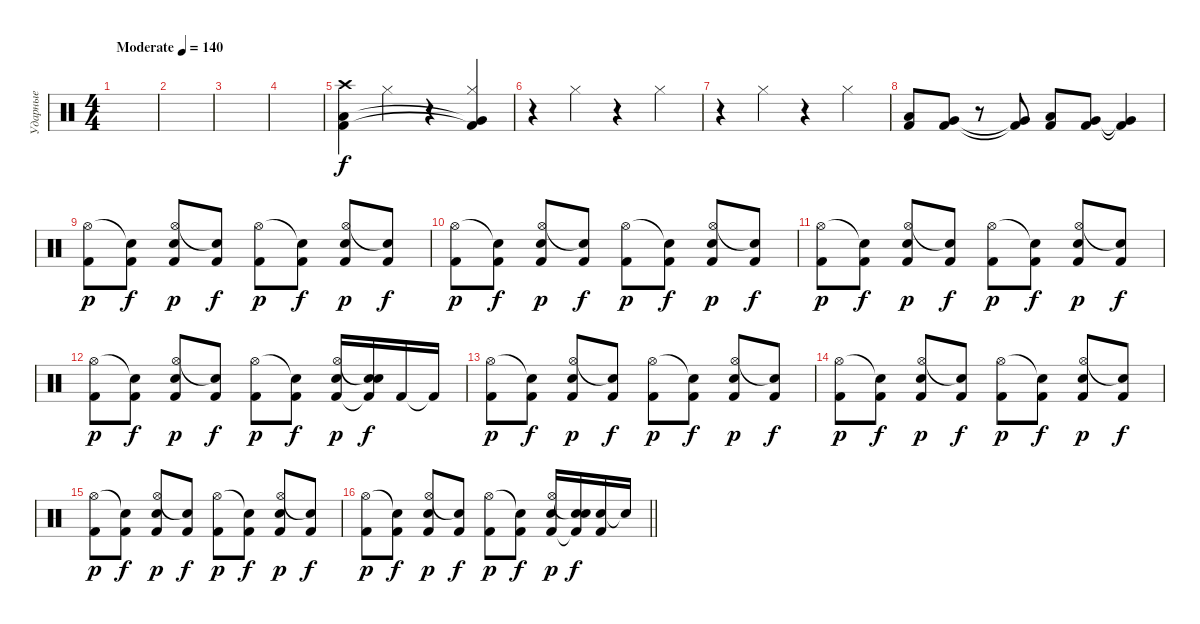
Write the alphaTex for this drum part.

\track ("Ударные" "Ударные") {instrument percussion}
\staff {score}
\articulation defaults
\ts (4 4)
\tempo (140 "Moderate")
\clef neutral
\ks c
|
|
|
|
("Crash high (hit)" "Low Floor Tom (hit)" "Kick (hit) 2").4 "Hi-Hat (closed)".4 r.4 ("Hi-Hat (closed)" "Very Low Tom (hit)"{t} "Kick (hit) 2"{t}).4 |
r.4 "Hi-Hat (closed)".4 r.4 "Hi-Hat (closed)".4 |
r.4 "Hi-Hat (closed)".4 r.4 "Hi-Hat (closed)".4 |
("Low Floor Tom (hit)" "Kick (hit) 2").8 ("Very Low Tom (hit)" "Kick (hit) 2").8 r.8 ("Very Low Tom (hit)"{t} "Kick (hit) 2"{t}).8 ("Low Floor Tom (hit)" "Kick (hit) 2").8 ("Very Low Tom (hit)" "Kick (hit) 2").8 ("Very Low Tom (hit)"{t} "Kick (hit) 2"{t}).4 |
("Hi-Hat (open)" "Kick (hit) 2").8{dy p} ("Snare (hit)"{t} "Kick (hit) 2").8{dy f} ("Hi-Hat (open)" "Electric Snare (hit)" "Kick (hit) 2").8{dy p} ("Snare (hit)"{t} "Kick (hit) 2").8{dy f} ("Hi-Hat (open)" "Kick (hit) 2").8{dy p} ("Snare (hit)"{t} "Kick (hit) 2").8{dy f} ("Hi-Hat (open)" "Electric Snare (hit)" "Kick (hit) 2").8{dy p} ("Snare (hit)"{t} "Kick (hit) 2").8{dy f} |
("Hi-Hat (open)" "Kick (hit) 2").8{dy p} ("Snare (hit)"{t} "Kick (hit) 2").8{dy f} ("Hi-Hat (open)" "Electric Snare (hit)" "Kick (hit) 2").8{dy p} ("Snare (hit)"{t} "Kick (hit) 2").8{dy f} ("Hi-Hat (open)" "Kick (hit) 2").8{dy p} ("Snare (hit)"{t} "Kick (hit) 2").8{dy f} ("Hi-Hat (open)" "Electric Snare (hit)" "Kick (hit) 2").8{dy p} ("Snare (hit)"{t} "Kick (hit) 2").8{dy f} |
("Hi-Hat (open)" "Kick (hit) 2").8{dy p} ("Snare (hit)"{t} "Kick (hit) 2").8{dy f} ("Hi-Hat (open)" "Electric Snare (hit)" "Kick (hit) 2").8{dy p} ("Snare (hit)"{t} "Kick (hit) 2").8{dy f} ("Hi-Hat (open)" "Kick (hit) 2").8{dy p} ("Snare (hit)"{t} "Kick (hit) 2").8{dy f} ("Hi-Hat (open)" "Electric Snare (hit)" "Kick (hit) 2").8{dy p} ("Snare (hit)"{t} "Kick (hit) 2").8{dy f} |
("Hi-Hat (open)" "Kick (hit) 2").8{dy p} ("Snare (hit)"{t} "Kick (hit) 2").8{dy f} ("Hi-Hat (open)" "Electric Snare (hit)" "Kick (hit) 2").8{dy p} ("Snare (hit)"{t} "Kick (hit) 2").8{dy f} ("Hi-Hat (open)" "Kick (hit) 2").8{dy p} ("Snare (hit)"{t} "Kick (hit) 2").8{dy f} ("Hi-Hat (open)" "Electric Snare (hit)" "Kick (hit) 2").16{dy p} ("Snare (hit)"{t} "Electric Snare (hit)" "Kick (hit) 2"{t}).16{dy f} "Kick (hit) 2".16 "Kick (hit) 2"{t}.16 |
("Hi-Hat (open)" "Kick (hit) 2").8{dy p} ("Snare (hit)"{t} "Kick (hit) 2").8{dy f} ("Hi-Hat (open)" "Electric Snare (hit)" "Kick (hit) 2").8{dy p} ("Snare (hit)"{t} "Kick (hit) 2").8{dy f} ("Hi-Hat (open)" "Kick (hit) 2").8{dy p} ("Snare (hit)"{t} "Kick (hit) 2").8{dy f} ("Hi-Hat (open)" "Electric Snare (hit)" "Kick (hit) 2").8{dy p} ("Snare (hit)"{t} "Kick (hit) 2").8{dy f} |
("Hi-Hat (open)" "Kick (hit) 2").8{dy p} ("Snare (hit)"{t} "Kick (hit) 2").8{dy f} ("Hi-Hat (open)" "Electric Snare (hit)" "Kick (hit) 2").8{dy p} ("Snare (hit)"{t} "Kick (hit) 2").8{dy f} ("Hi-Hat (open)" "Kick (hit) 2").8{dy p} ("Snare (hit)"{t} "Kick (hit) 2").8{dy f} ("Hi-Hat (open)" "Electric Snare (hit)" "Kick (hit) 2").8{dy p} ("Snare (hit)"{t} "Kick (hit) 2").8{dy f} |
("Hi-Hat (open)" "Kick (hit) 2").8{dy p} ("Snare (hit)"{t} "Kick (hit) 2").8{dy f} ("Hi-Hat (open)" "Electric Snare (hit)" "Kick (hit) 2").8{dy p} ("Snare (hit)"{t} "Kick (hit) 2").8{dy f} ("Hi-Hat (open)" "Kick (hit) 2").8{dy p} ("Snare (hit)"{t} "Kick (hit) 2").8{dy f} ("Hi-Hat (open)" "Electric Snare (hit)" "Kick (hit) 2").8{dy p} ("Snare (hit)"{t} "Kick (hit) 2").8{dy f} |
\barLineRight lightlight
("Hi-Hat (open)" "Kick (hit) 2").8{dy p} ("Snare (hit)"{t} "Kick (hit) 2").8{dy f} ("Hi-Hat (open)" "Electric Snare (hit)" "Kick (hit) 2").8{dy p} ("Snare (hit)"{t} "Kick (hit) 2").8{dy f} ("Hi-Hat (open)" "Kick (hit) 2").8{dy p} ("Snare (hit)"{t} "Kick (hit) 2").8{dy f} ("Hi-Hat (open)" "Electric Snare (hit)" "Kick (hit) 2").16{dy p} ("Snare (hit)"{t} "Electric Snare (hit)" "Kick (hit) 2"{t}).16{dy f} ("Electric Snare (hit)" "Kick (hit) 2").16 "Snare (hit)"{t}.16
